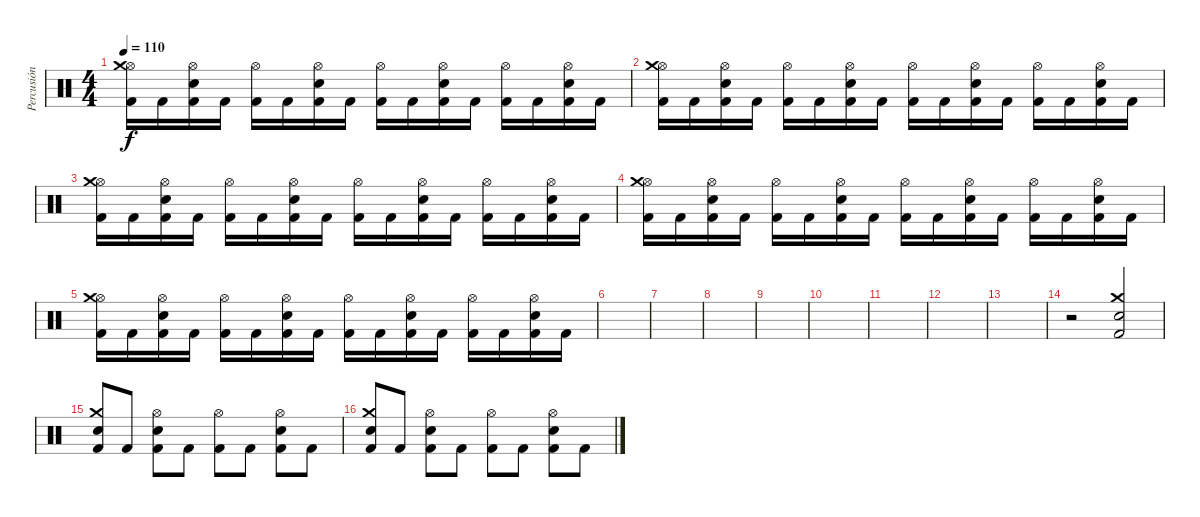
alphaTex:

\track ("Percusión" "Percusión") {instrument percussion}
\staff {score}
\articulation defaults
\ts (4 4)
\tempo 110
\clef neutral
\ks c
("Hi-Hat (open)" "Kick (hit) 2" "Crash medium (hit)").16{dy f} "Kick (hit) 2".16 ("Hi-Hat (open)" "Electric Snare (hit)" "Kick (hit) 2").16 "Kick (hit) 2".16 ("Hi-Hat (open)" "Kick (hit) 2").16 "Kick (hit) 2".16 ("Hi-Hat (open)" "Electric Snare (hit)" "Kick (hit) 2").16 "Kick (hit) 2".16 ("Hi-Hat (open)" "Kick (hit) 2").16 "Kick (hit) 2".16 ("Hi-Hat (open)" "Electric Snare (hit)" "Kick (hit) 2").16 "Kick (hit) 2".16 ("Hi-Hat (open)" "Kick (hit) 2").16 "Kick (hit) 2".16 ("Hi-Hat (open)" "Electric Snare (hit)" "Kick (hit) 2").16 "Kick (hit) 2".16 |
("Hi-Hat (open)" "Kick (hit) 2" "Crash medium (hit)").16 "Kick (hit) 2".16 ("Hi-Hat (open)" "Electric Snare (hit)" "Kick (hit) 2").16 "Kick (hit) 2".16 ("Hi-Hat (open)" "Kick (hit) 2").16 "Kick (hit) 2".16 ("Hi-Hat (open)" "Electric Snare (hit)" "Kick (hit) 2").16 "Kick (hit) 2".16 ("Hi-Hat (open)" "Kick (hit) 2").16 "Kick (hit) 2".16 ("Hi-Hat (open)" "Electric Snare (hit)" "Kick (hit) 2").16 "Kick (hit) 2".16 ("Hi-Hat (open)" "Kick (hit) 2").16 "Kick (hit) 2".16 ("Hi-Hat (open)" "Electric Snare (hit)" "Kick (hit) 2").16 "Kick (hit) 2".16 |
("Hi-Hat (open)" "Kick (hit) 2" "Crash medium (hit)").16 "Kick (hit) 2".16 ("Hi-Hat (open)" "Electric Snare (hit)" "Kick (hit) 2").16 "Kick (hit) 2".16 ("Hi-Hat (open)" "Kick (hit) 2").16 "Kick (hit) 2".16 ("Hi-Hat (open)" "Electric Snare (hit)" "Kick (hit) 2").16 "Kick (hit) 2".16 ("Hi-Hat (open)" "Kick (hit) 2").16 "Kick (hit) 2".16 ("Hi-Hat (open)" "Electric Snare (hit)" "Kick (hit) 2").16 "Kick (hit) 2".16 ("Hi-Hat (open)" "Kick (hit) 2").16 "Kick (hit) 2".16 ("Hi-Hat (open)" "Electric Snare (hit)" "Kick (hit) 2").16 "Kick (hit) 2".16 |
("Hi-Hat (open)" "Kick (hit) 2" "Crash medium (hit)").16 "Kick (hit) 2".16 ("Hi-Hat (open)" "Electric Snare (hit)" "Kick (hit) 2").16 "Kick (hit) 2".16 ("Hi-Hat (open)" "Kick (hit) 2").16 "Kick (hit) 2".16 ("Hi-Hat (open)" "Electric Snare (hit)" "Kick (hit) 2").16 "Kick (hit) 2".16 ("Hi-Hat (open)" "Kick (hit) 2").16 "Kick (hit) 2".16 ("Hi-Hat (open)" "Electric Snare (hit)" "Kick (hit) 2").16 "Kick (hit) 2".16 ("Hi-Hat (open)" "Kick (hit) 2").16 "Kick (hit) 2".16 ("Hi-Hat (open)" "Electric Snare (hit)" "Kick (hit) 2").16 "Kick (hit) 2".16 |
("Hi-Hat (open)" "Kick (hit) 2" "Crash medium (hit)").16 "Kick (hit) 2".16 ("Hi-Hat (open)" "Electric Snare (hit)" "Kick (hit) 2").16 "Kick (hit) 2".16 ("Hi-Hat (open)" "Kick (hit) 2").16 "Kick (hit) 2".16 ("Hi-Hat (open)" "Electric Snare (hit)" "Kick (hit) 2").16 "Kick (hit) 2".16 ("Hi-Hat (open)" "Kick (hit) 2").16 "Kick (hit) 2".16 ("Hi-Hat (open)" "Electric Snare (hit)" "Kick (hit) 2").16 "Kick (hit) 2".16 ("Hi-Hat (open)" "Kick (hit) 2").16 "Kick (hit) 2".16 ("Hi-Hat (open)" "Electric Snare (hit)" "Kick (hit) 2").16 "Kick (hit) 2".16 |
|
|
|
|
|
|
|
|
r.2 ("Crash medium (hit)" "Electric Snare (hit)" "Kick (hit) 2").2 |
("Kick (hit) 2" "Electric Snare (hit)" "Crash medium (hit)").8 "Kick (hit) 2".8 ("Hi-Hat (open)" "Electric Snare (hit)" "Kick (hit) 2").8 "Kick (hit) 2".8 ("Hi-Hat (open)" "Kick (hit) 2").8 "Kick (hit) 2".8 ("Hi-Hat (open)" "Electric Snare (hit)" "Kick (hit) 2").8 "Kick (hit) 2".8 |
("Kick (hit) 2" "Electric Snare (hit)" "Crash medium (hit)").8 "Kick (hit) 2".8 ("Hi-Hat (open)" "Electric Snare (hit)" "Kick (hit) 2").8 "Kick (hit) 2".8 ("Hi-Hat (open)" "Kick (hit) 2").8 "Kick (hit) 2".8 ("Hi-Hat (open)" "Electric Snare (hit)" "Kick (hit) 2").8 "Kick (hit) 2".8
